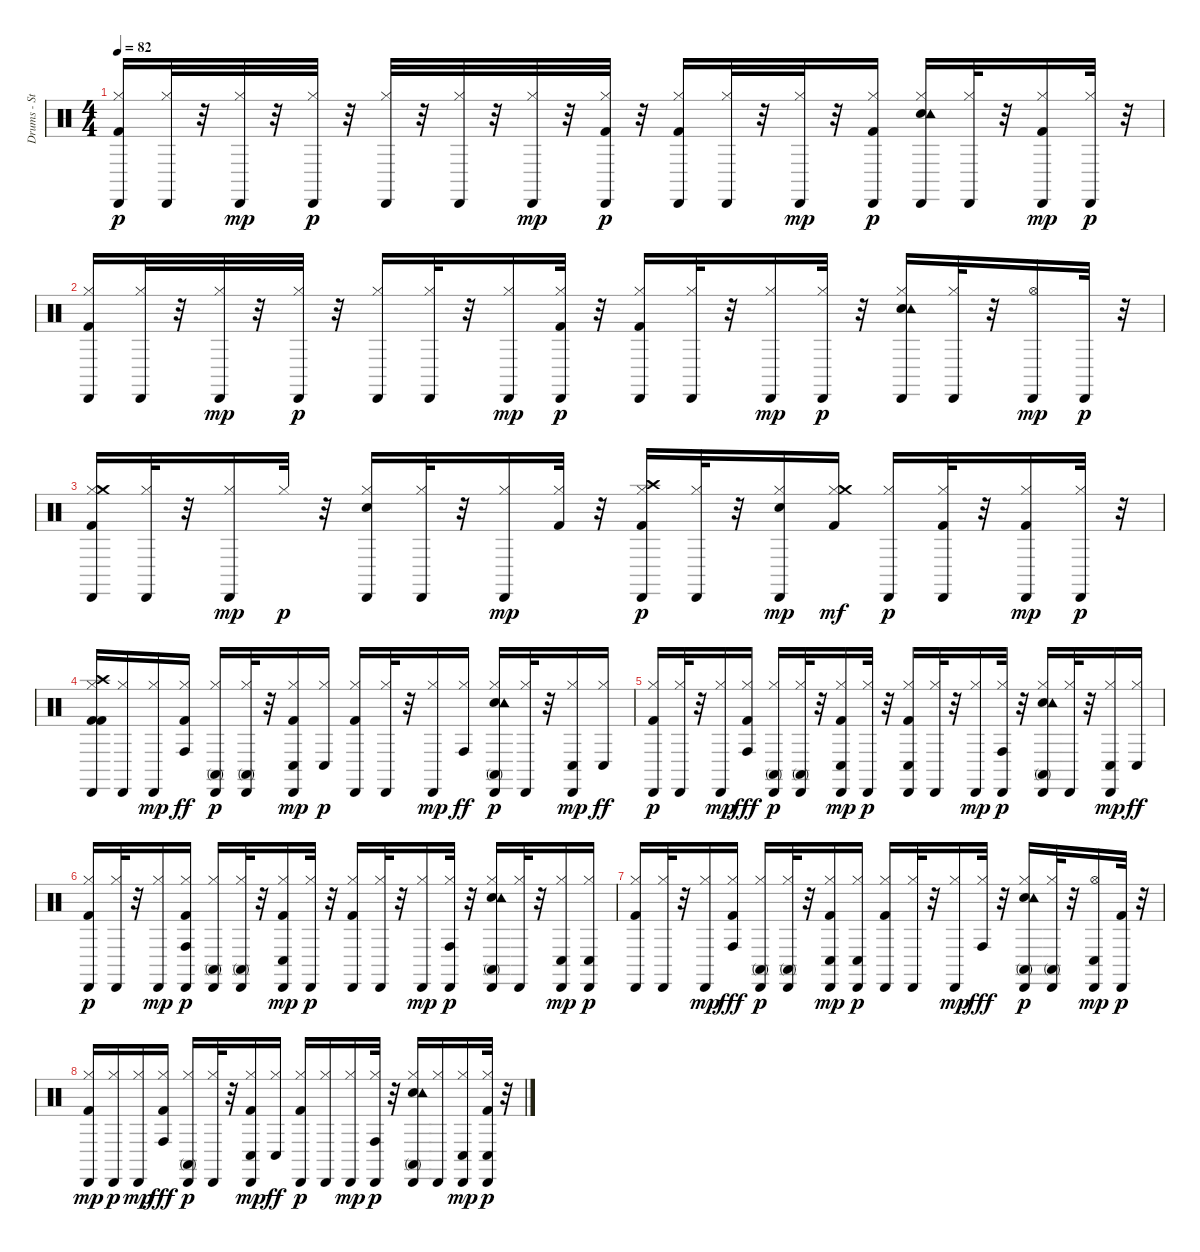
\track ("Drums - Standard" "Drums - St") {instrument percussion}
\staff {score}
\articulation defaults
\ts (4 4)
\tempo 82
\clef neutral
\ks c
("Kick (hit) 2" "Hi-Hat (closed)" "Cabasa (hit)").16{dy p} ("Hi-Hat (closed)" "Cabasa (hit)").32 r.32 ("Hi-Hat (closed)" "Cabasa (hit)").32{dy mp} r.32 ("Hi-Hat (closed)" "Cabasa (hit)").32{dy p} r.32 ("Hi-Hat (closed)" "Cabasa (hit)").32 r.32 ("Hi-Hat (closed)" "Cabasa (hit)").32 r.32 ("Hi-Hat (closed)" "Cabasa (hit)").32{dy mp} r.32 ("Kick (hit) 2" "Hi-Hat (closed)" "Cabasa (hit)").32{dy p} r.32 ("Kick (hit) 2" "Hi-Hat (closed)" "Cabasa (hit)").16 ("Hi-Hat (closed)" "Cabasa (hit)").32 r.32 ("Hi-Hat (closed)" "Cabasa (hit)").32{dy mp} r.32 ("Kick (hit) 2" "Hi-Hat (closed)" "Cabasa (hit)").16{dy p} ("Electric Snare (hit)" "Hi-Hat (closed)" "Tambourine (hit)" "Cabasa (hit)").16 ("Hi-Hat (closed)" "Cabasa (hit)").32 r.32 ("Kick (hit) 2" "Hi-Hat (closed)" "Cabasa (hit)").16{dy mp} ("Hi-Hat (closed)" "Cabasa (hit)").32{dy p} r.32 |
("Kick (hit) 2" "Hi-Hat (closed)" "Cabasa (hit)").16 ("Hi-Hat (closed)" "Cabasa (hit)").32 r.32 ("Hi-Hat (closed)" "Cabasa (hit)").32{dy mp} r.32 ("Hi-Hat (closed)" "Cabasa (hit)").32{dy p} r.32 ("Hi-Hat (closed)" "Cabasa (hit)").16 ("Hi-Hat (closed)" "Cabasa (hit)").32 r.32 ("Hi-Hat (closed)" "Cabasa (hit)").16{dy mp} ("Kick (hit) 2" "Hi-Hat (closed)" "Cabasa (hit)").32{dy p} r.32 ("Kick (hit) 2" "Hi-Hat (closed)" "Cabasa (hit)").16 ("Hi-Hat (closed)" "Cabasa (hit)").32 r.32 ("Hi-Hat (closed)" "Cabasa (hit)").16{dy mp} ("Hi-Hat (closed)" "Cabasa (hit)").32{dy p} r.32 ("Electric Snare (hit)" "Hi-Hat (closed)" "Tambourine (hit)" "Cabasa (hit)").16 ("Hi-Hat (closed)" "Cabasa (hit)").32 r.32 ("Hi-Hat (open)" "Cabasa (hit)").16{dy mp} "Cabasa (hit)".32{dy p} r.32 |
("Kick (hit) 2" "Hi-Hat (closed)" "Crash medium (hit)" "Cabasa (hit)").16 ("Hi-Hat (closed)" "Cabasa (hit)").32 r.32 ("Hi-Hat (closed)" "Cabasa (hit)").16{dy mp} "Hi-Hat (closed)".32{dy p} r.32 ("Electric Snare (hit)" "Hi-Hat (closed)" "Cabasa (hit)").16 ("Hi-Hat (closed)" "Cabasa (hit)").32 r.32 ("Hi-Hat (closed)" "Cabasa (hit)").16{dy mp} ("Kick (hit) 2" "Hi-Hat (closed)").32 r.32 ("Kick (hit) 2" "Hi-Hat (closed)" "Crash high (hit)" "Cabasa (hit)").16{dy p} ("Hi-Hat (closed)" "Cabasa (hit)").32 r.32 ("Electric Snare (hit)" "Hi-Hat (closed)" "Cabasa (hit)").16{dy mp} ("Kick (hit) 2" "Hi-Hat (closed)" "Crash medium (hit)").16{dy mf} ("Hi-Hat (closed)" "Cabasa (hit)").16{dy p} ("Kick (hit) 2" "Hi-Hat (closed)" "Cabasa (hit)").32 r.32 ("Kick (hit) 2" "Hi-Hat (closed)" "Cabasa (hit)").16{dy mp} ("Hi-Hat (closed)" "Cabasa (hit)").32{dy p} r.32 |
("Kick (hit) 2" "Kick (hit) 2" "Hi-Hat (closed)" "Crash high (hit)" "Cabasa (hit)").16 ("Hi-Hat (closed)" "Cabasa (hit)").16 ("Hi-Hat (closed)" "Cabasa (hit)").16{dy mp} ("Kick (hit) 2" "Hi-Hat (closed)" "Conga high (hit)").16{dy ff} ("Hi-Hat (closed)" "Conga high (mute)" "Cabasa (hit)").16{dy p} ("Hi-Hat (closed)" "Conga high (mute)" "Cabasa (hit)").32 r.32 ("Kick (hit) 2" "Hi-Hat (closed)" "Conga low (hit)" "Cabasa (hit)").16{dy mp} ("Hi-Hat (closed)" "Conga low (hit)").16{dy p} ("Kick (hit) 2" "Hi-Hat (closed)" "Cabasa (hit)").16 ("Hi-Hat (closed)" "Cabasa (hit)").32 r.32 ("Hi-Hat (closed)" "Cabasa (hit)").16{dy mp} ("Hi-Hat (closed)" "Conga high (hit)").16{dy ff} ("Electric Snare (hit)" "Hi-Hat (closed)" "Tambourine (hit)" "Conga high (mute)" "Cabasa (hit)").16{dy p} ("Hi-Hat (closed)" "Cabasa (hit)").32 r.32 ("Hi-Hat (closed)" "Conga low (hit)" "Cabasa (hit)").16{dy mp} ("Hi-Hat (closed)" "Conga low (hit)").16{dy ff} |
("Kick (hit) 2" "Hi-Hat (closed)" "Cabasa (hit)").16{dy p} ("Hi-Hat (closed)" "Cabasa (hit)").32 r.32 ("Hi-Hat (closed)" "Cabasa (hit)").16{dy mp} ("Kick (hit) 2" "Hi-Hat (closed)" "Conga high (hit)").16{dy fff} ("Hi-Hat (closed)" "Conga high (mute)" "Cabasa (hit)").16{dy p} ("Hi-Hat (closed)" "Conga high (mute)" "Cabasa (hit)").32 r.32 ("Kick (hit) 2" "Hi-Hat (closed)" "Conga low (hit)" "Cabasa (hit)").16{dy mp} ("Hi-Hat (closed)" "Cabasa (hit)").32{dy p} r.32 ("Kick (hit) 2" "Hi-Hat (closed)" "Conga low (hit)" "Cabasa (hit)").16 ("Hi-Hat (closed)" "Cabasa (hit)").32 r.32 ("Hi-Hat (closed)" "Cabasa (hit)").16{dy mp} ("Hi-Hat (closed)" "Conga high (hit)" "Cabasa (hit)").32{dy p} r.32 ("Electric Snare (hit)" "Hi-Hat (closed)" "Tambourine (hit)" "Conga high (mute)" "Cabasa (hit)").16 ("Hi-Hat (closed)" "Cabasa (hit)").32 r.32 ("Hi-Hat (closed)" "Conga low (hit)" "Cabasa (hit)").16{dy mp} ("Hi-Hat (closed)" "Conga low (hit)").16{dy ff} |
("Kick (hit) 2" "Hi-Hat (closed)" "Cabasa (hit)").16{dy p} ("Hi-Hat (closed)" "Cabasa (hit)").32 r.32 ("Hi-Hat (closed)" "Cabasa (hit)").16{dy mp} ("Kick (hit) 2" "Hi-Hat (closed)" "Conga high (hit)" "Cabasa (hit)").16{dy p} ("Hi-Hat (closed)" "Conga high (mute)" "Cabasa (hit)").16 ("Hi-Hat (closed)" "Conga high (mute)" "Cabasa (hit)").32 r.32 ("Kick (hit) 2" "Hi-Hat (closed)" "Conga low (hit)" "Cabasa (hit)").16{dy mp} ("Hi-Hat (closed)" "Cabasa (hit)").32{dy p} r.32 ("Kick (hit) 2" "Hi-Hat (closed)" "Cabasa (hit)").16 ("Hi-Hat (closed)" "Cabasa (hit)").32 r.32 ("Hi-Hat (closed)" "Cabasa (hit)").16{dy mp} ("Hi-Hat (closed)" "Conga high (hit)" "Cabasa (hit)").32{dy p} r.32 ("Electric Snare (hit)" "Hi-Hat (closed)" "Tambourine (hit)" "Conga high (mute)" "Cabasa (hit)").16 ("Hi-Hat (closed)" "Cabasa (hit)").32 r.32 ("Hi-Hat (closed)" "Conga low (hit)" "Cabasa (hit)").16{dy mp} ("Hi-Hat (closed)" "Conga low (hit)" "Cabasa (hit)").16{dy p} |
("Kick (hit) 2" "Hi-Hat (closed)" "Cabasa (hit)").16 ("Hi-Hat (closed)" "Cabasa (hit)").32 r.32 ("Hi-Hat (closed)" "Cabasa (hit)").16{dy mp} ("Kick (hit) 2" "Hi-Hat (closed)" "Conga high (hit)").16{dy fff} ("Hi-Hat (closed)" "Conga high (mute)" "Cabasa (hit)").16{dy p} ("Hi-Hat (closed)" "Conga high (mute)" "Cabasa (hit)").32 r.32 ("Kick (hit) 2" "Hi-Hat (closed)" "Conga low (hit)" "Cabasa (hit)").16{dy mp} ("Hi-Hat (closed)" "Conga low (hit)" "Cabasa (hit)").16{dy p} ("Kick (hit) 2" "Hi-Hat (closed)" "Cabasa (hit)").16 ("Hi-Hat (closed)" "Cabasa (hit)").32 r.32 ("Hi-Hat (closed)" "Cabasa (hit)").16{dy mp} ("Hi-Hat (closed)" "Conga high (hit)").32{dy fff} r.32 ("Electric Snare (hit)" "Hi-Hat (closed)" "Tambourine (hit)" "Conga high (mute)" "Cabasa (hit)").16{dy p} ("Hi-Hat (closed)" "Conga high (mute)" "Cabasa (hit)").32 r.32 ("Hi-Hat (open)" "Conga low (hit)" "Cabasa (hit)").16{dy mp} ("Kick (hit) 2" "Cabasa (hit)").32{dy p} r.32 |
("Kick (hit) 2" "Hi-Hat (closed)" "Cabasa (hit)").16{dy mp} ("Hi-Hat (closed)" "Cabasa (hit)").16{dy p} ("Hi-Hat (closed)" "Cabasa (hit)").16{dy mp} ("Kick (hit) 2" "Hi-Hat (closed)" "Conga high (hit)").16{dy fff} ("Hi-Hat (closed)" "Conga high (mute)" "Cabasa (hit)").16{dy p} ("Hi-Hat (closed)" "Cabasa (hit)").32 r.32 ("Kick (hit) 2" "Hi-Hat (closed)" "Conga low (hit)" "Cabasa (hit)").16{dy mp} ("Hi-Hat (closed)" "Conga low (hit)").16{dy ff} ("Kick (hit) 2" "Hi-Hat (closed)" "Cabasa (hit)").16{dy p} ("Hi-Hat (closed)" "Cabasa (hit)").16 ("Hi-Hat (closed)" "Cabasa (hit)").16{dy mp} ("Hi-Hat (closed)" "Conga high (hit)" "Cabasa (hit)").32{dy p} r.32 ("Electric Snare (hit)" "Hi-Hat (closed)" "Tambourine (hit)" "Conga high (mute)" "Cabasa (hit)").16 ("Hi-Hat (closed)" "Cabasa (hit)").16 ("Hi-Hat (closed)" "Conga low (hit)" "Cabasa (hit)").16{dy mp} ("Kick (hit) 2" "Hi-Hat (closed)" "Conga low (hit)" "Cabasa (hit)").32{dy p} r.32
